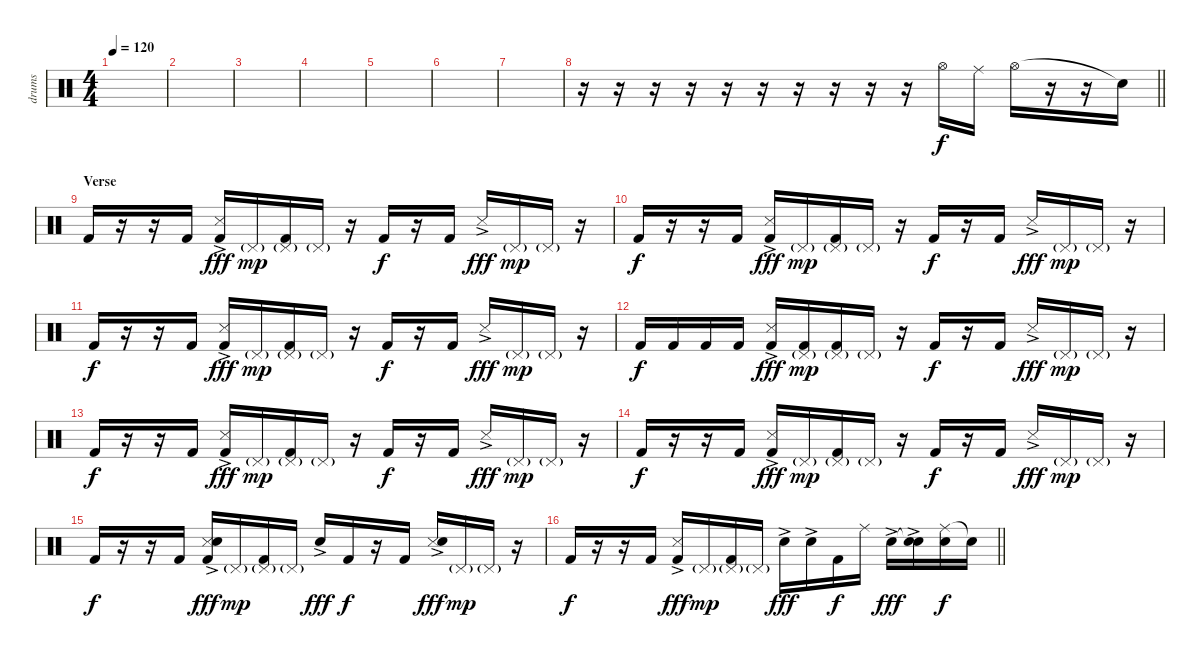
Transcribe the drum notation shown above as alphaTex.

\track ("drums" "drums") {instrument percussion}
\staff {score}
\articulation defaults
\ts (4 4)
\tempo 120
\clef neutral
\ks c
|
|
|
|
|
|
|
\barLineRight lightlight
r.16 r.16 r.16 r.16 r.16 r.16 r.16 r.16 r.16 r.16 "Hi-Hat (open)".16 "Ride (middle)".16 "Hi-Hat (open)".16 r.16 r.16 "Snare (hit)"{t}.16 |
\section ("" "Verse")
"Kick (hit) 2".16 r.16 r.16 "Kick (hit) 2".16 ("Kick (hit) 2" "Snare (side stick) 3"{ac}).16{dy fff} "Pedal Hi-Hat (hit)"{g}.16{dy mp} ("Kick (hit) 2" "Pedal Hi-Hat (hit)"{g}).16 "Pedal Hi-Hat (hit)"{g}.16 r.16 "Kick (hit) 2".16{dy f} r.16 "Kick (hit) 2".16 "Snare (side stick) 3"{ac}.16{dy fff} "Pedal Hi-Hat (hit)"{g}.16{dy mp} "Pedal Hi-Hat (hit)"{g}.16 r.16 |
"Kick (hit) 2".16{dy f} r.16 r.16 "Kick (hit) 2".16 ("Kick (hit) 2" "Snare (side stick) 3"{ac}).16{dy fff} "Pedal Hi-Hat (hit)"{g}.16{dy mp} ("Kick (hit) 2" "Pedal Hi-Hat (hit)"{g}).16 "Pedal Hi-Hat (hit)"{g}.16 r.16 "Kick (hit) 2".16{dy f} r.16 "Kick (hit) 2".16 "Snare (side stick) 3"{ac}.16{dy fff} "Pedal Hi-Hat (hit)"{g}.16{dy mp} "Pedal Hi-Hat (hit)"{g}.16 r.16 |
"Kick (hit) 2".16{dy f} r.16 r.16 "Kick (hit) 2".16 ("Kick (hit) 2" "Snare (side stick) 3"{ac}).16{dy fff} "Pedal Hi-Hat (hit)"{g}.16{dy mp} ("Kick (hit) 2" "Pedal Hi-Hat (hit)"{g}).16 "Pedal Hi-Hat (hit)"{g}.16 r.16 "Kick (hit) 2".16{dy f} r.16 "Kick (hit) 2".16 "Snare (side stick) 3"{ac}.16{dy fff} "Pedal Hi-Hat (hit)"{g}.16{dy mp} "Pedal Hi-Hat (hit)"{g}.16 r.16 |
"Kick (hit) 2".16{dy f} "Kick (hit) 2".16 "Kick (hit) 2".16 "Kick (hit) 2".16 ("Kick (hit) 2" "Snare (side stick) 3"{ac}).16{dy fff} ("Kick (hit) 2" "Pedal Hi-Hat (hit)"{g}).16{dy mp} ("Kick (hit) 2" "Pedal Hi-Hat (hit)"{g}).16 "Pedal Hi-Hat (hit)"{g}.16 r.16 "Kick (hit) 2".16{dy f} r.16 "Kick (hit) 2".16 "Snare (side stick) 3"{ac}.16{dy fff} "Pedal Hi-Hat (hit)"{g}.16{dy mp} "Pedal Hi-Hat (hit)"{g}.16 r.16 |
"Kick (hit) 2".16{dy f} r.16 r.16 "Kick (hit) 2".16 ("Kick (hit) 2" "Snare (side stick) 3"{ac}).16{dy fff} "Pedal Hi-Hat (hit)"{g}.16{dy mp} ("Kick (hit) 2" "Pedal Hi-Hat (hit)"{g}).16 "Pedal Hi-Hat (hit)"{g}.16 r.16 "Kick (hit) 2".16{dy f} r.16 "Kick (hit) 2".16 "Snare (side stick) 3"{ac}.16{dy fff} "Pedal Hi-Hat (hit)"{g}.16{dy mp} "Pedal Hi-Hat (hit)"{g}.16 r.16 |
"Kick (hit) 2".16{dy f} r.16 r.16 "Kick (hit) 2".16 ("Kick (hit) 2" "Snare (side stick) 3"{ac}).16{dy fff} "Pedal Hi-Hat (hit)"{g}.16{dy mp} ("Kick (hit) 2" "Pedal Hi-Hat (hit)"{g}).16 "Pedal Hi-Hat (hit)"{g}.16 r.16 "Kick (hit) 2".16{dy f} r.16 "Kick (hit) 2".16 "Snare (side stick) 3"{ac}.16{dy fff} "Pedal Hi-Hat (hit)"{g}.16{dy mp} "Pedal Hi-Hat (hit)"{g}.16 r.16 |
"Kick (hit) 2".16{dy f} r.16 r.16 "Kick (hit) 2".16 ("Kick (hit) 2" "Snare (side stick) 3"{ac} "Hand Clap (hit)").16{dy fff} "Pedal Hi-Hat (hit)"{g}.16{dy mp} ("Kick (hit) 2" "Pedal Hi-Hat (hit)"{g}).16 "Pedal Hi-Hat (hit)"{g}.16 "Hand Clap (hit)"{ac}.16{dy fff} "Kick (hit) 2".16{dy f} r.16 "Kick (hit) 2".16 ("Snare (side stick) 3"{ac} "Hand Clap (hit)"{ac}).16{dy fff} "Pedal Hi-Hat (hit)"{g}.16{dy mp} "Pedal Hi-Hat (hit)"{g}.16 r.16 |
\barLineRight lightlight "Kick (hit) 2".16{dy f}
r.16 r.16 "Kick (hit) 2".16 ("Kick (hit) 2" "Snare (side stick) 3"{ac}).16{dy fff} "Pedal Hi-Hat (hit)"{g}.16{dy mp} ("Kick (hit) 2" "Pedal Hi-Hat (hit)"{g}).16 "Pedal Hi-Hat (hit)"{g}.16 "Electric Snare (hit)"{ac}.16{dy fff} "Electric Snare (hit)"{ac}.16 "Kick (hit) 2".16{dy f} "Ride (middle)".16 "Electric Snare (hit)"{ac}.16{dy fff} ("Snare (hit)"{t} "Electric Snare (hit)"{ac}).16 ("Ride (middle)" "Electric Snare (hit)").16{dy f} "Snare (hit)"{t}.16
